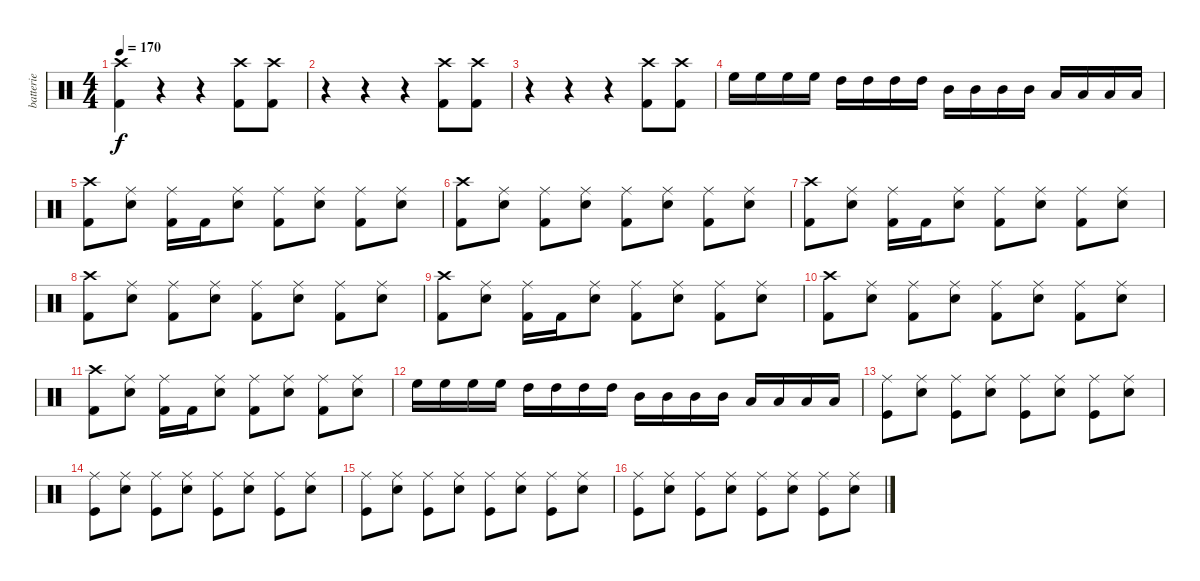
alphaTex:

\track ("batterie" "batterie") {instrument percussion}
\staff {score}
\articulation defaults
\ts (4 4)
\tempo 170
\clef neutral
\ks c
("Crash high (hit)" "Kick (hit) 2").4{dy f} r.4 r.4 ("Crash high (hit)" "Kick (hit) 2").8 ("Crash high (hit)" "Kick (hit) 2").8 |
r.4 r.4 r.4 ("Crash high (hit)" "Kick (hit) 2").8 ("Crash high (hit)" "Kick (hit) 2").8 |
r.4 r.4 r.4 ("Crash high (hit)" "Kick (hit) 2").8 ("Crash high (hit)" "Kick (hit) 2").8 |
"High Floor Tom (hit)".16 "High Floor Tom (hit)".16 "High Floor Tom (hit)".16 "High Floor Tom (hit)".16 "High Tom (hit)".16 "High Tom (hit)".16 "High Tom (hit)".16 "High Tom (hit)".16 "Mid Tom (hit)".16 "Mid Tom (hit)".16 "Mid Tom (hit)".16 "Mid Tom (hit)".16 "Low Tom (hit)".16 "Low Tom (hit)".16 "Low Tom (hit)".16 "Low Tom (hit)".16 |
("Crash high (hit)" "Kick (hit) 2").8 ("Ride (middle)" "Snare (hit) 2").8 ("Ride (middle)" "Kick (hit) 2").16 "Kick (hit) 2".16 ("Ride (middle)" "Snare (hit) 2").8 ("Ride (middle)" "Kick (hit) 2").8 ("Ride (middle)" "Snare (hit) 2").8 ("Ride (middle)" "Kick (hit) 2").8 ("Ride (middle)" "Snare (hit) 2").8 |
("Crash high (hit)" "Kick (hit) 2").8 ("Ride (middle)" "Snare (hit) 2").8 ("Ride (middle)" "Kick (hit) 2").8 ("Ride (middle)" "Snare (hit) 2").8 ("Ride (middle)" "Kick (hit) 2").8 ("Ride (middle)" "Snare (hit) 2").8 ("Ride (middle)" "Kick (hit) 2").8 ("Ride (middle)" "Snare (hit) 2").8 |
("Crash high (hit)" "Kick (hit) 2").8 ("Ride (middle)" "Snare (hit) 2").8 ("Ride (middle)" "Kick (hit) 2").16 "Kick (hit) 2".16 ("Ride (middle)" "Snare (hit) 2").8 ("Ride (middle)" "Kick (hit) 2").8 ("Ride (middle)" "Snare (hit) 2").8 ("Ride (middle)" "Kick (hit) 2").8 ("Ride (middle)" "Snare (hit) 2").8 |
("Crash high (hit)" "Kick (hit) 2").8 ("Ride (middle)" "Snare (hit) 2").8 ("Ride (middle)" "Kick (hit) 2").8 ("Ride (middle)" "Snare (hit) 2").8 ("Ride (middle)" "Kick (hit) 2").8 ("Ride (middle)" "Snare (hit) 2").8 ("Ride (middle)" "Kick (hit) 2").8 ("Ride (middle)" "Snare (hit) 2").8 |
("Crash high (hit)" "Kick (hit) 2").8 ("Ride (middle)" "Snare (hit) 2").8 ("Ride (middle)" "Kick (hit) 2").16 "Kick (hit) 2".16 ("Ride (middle)" "Snare (hit) 2").8 ("Ride (middle)" "Kick (hit) 2").8 ("Ride (middle)" "Snare (hit) 2").8 ("Ride (middle)" "Kick (hit) 2").8 ("Ride (middle)" "Snare (hit) 2").8 |
("Crash high (hit)" "Kick (hit) 2").8 ("Ride (middle)" "Snare (hit) 2").8 ("Ride (middle)" "Kick (hit) 2").8 ("Ride (middle)" "Snare (hit) 2").8 ("Ride (middle)" "Kick (hit) 2").8 ("Ride (middle)" "Snare (hit) 2").8 ("Ride (middle)" "Kick (hit) 2").8 ("Ride (middle)" "Snare (hit) 2").8 |
("Crash high (hit)" "Kick (hit) 2").8 ("Ride (middle)" "Snare (hit) 2").8 ("Ride (middle)" "Kick (hit) 2").16 "Kick (hit) 2".16 ("Ride (middle)" "Snare (hit) 2").8 ("Ride (middle)" "Kick (hit) 2").8 ("Ride (middle)" "Snare (hit) 2").8 ("Ride (middle)" "Kick (hit) 2").8 ("Ride (middle)" "Snare (hit) 2").8 |
"High Floor Tom (hit)".16 "High Floor Tom (hit)".16 "High Floor Tom (hit)".16 "High Floor Tom (hit)".16 "High Tom (hit)".16 "High Tom (hit)".16 "High Tom (hit)".16 "High Tom (hit)".16 "Mid Tom (hit)".16 "Mid Tom (hit)".16 "Mid Tom (hit)".16 "Mid Tom (hit)".16 "Low Tom (hit)".16 "Low Tom (hit)".16 "Low Tom (hit)".16 "Low Tom (hit)".16 |
("Ride (middle)" "Kick (hit)").8 ("Ride (middle)" "Snare (hit) 2").8 ("Ride (middle)" "Kick (hit)").8 ("Ride (middle)" "Snare (hit) 2").8 ("Ride (middle)" "Kick (hit)").8 ("Ride (middle)" "Snare (hit) 2").8 ("Ride (middle)" "Kick (hit)").8 ("Ride (middle)" "Snare (hit) 2").8 |
("Ride (middle)" "Kick (hit)").8 ("Ride (middle)" "Snare (hit) 2").8 ("Ride (middle)" "Kick (hit)").8 ("Ride (middle)" "Snare (hit) 2").8 ("Ride (middle)" "Kick (hit)").8 ("Ride (middle)" "Snare (hit) 2").8 ("Ride (middle)" "Kick (hit)").8 ("Ride (middle)" "Snare (hit) 2").8 |
("Ride (middle)" "Kick (hit)").8 ("Ride (middle)" "Snare (hit) 2").8 ("Ride (middle)" "Kick (hit)").8 ("Ride (middle)" "Snare (hit) 2").8 ("Ride (middle)" "Kick (hit)").8 ("Ride (middle)" "Snare (hit) 2").8 ("Ride (middle)" "Kick (hit)").8 ("Ride (middle)" "Snare (hit) 2").8 |
("Ride (middle)" "Kick (hit)").8 ("Ride (middle)" "Snare (hit) 2").8 ("Ride (middle)" "Kick (hit)").8 ("Ride (middle)" "Snare (hit) 2").8 ("Ride (middle)" "Kick (hit)").8 ("Ride (middle)" "Snare (hit) 2").8 ("Ride (middle)" "Kick (hit)").8 ("Ride (middle)" "Snare (hit) 2").8
